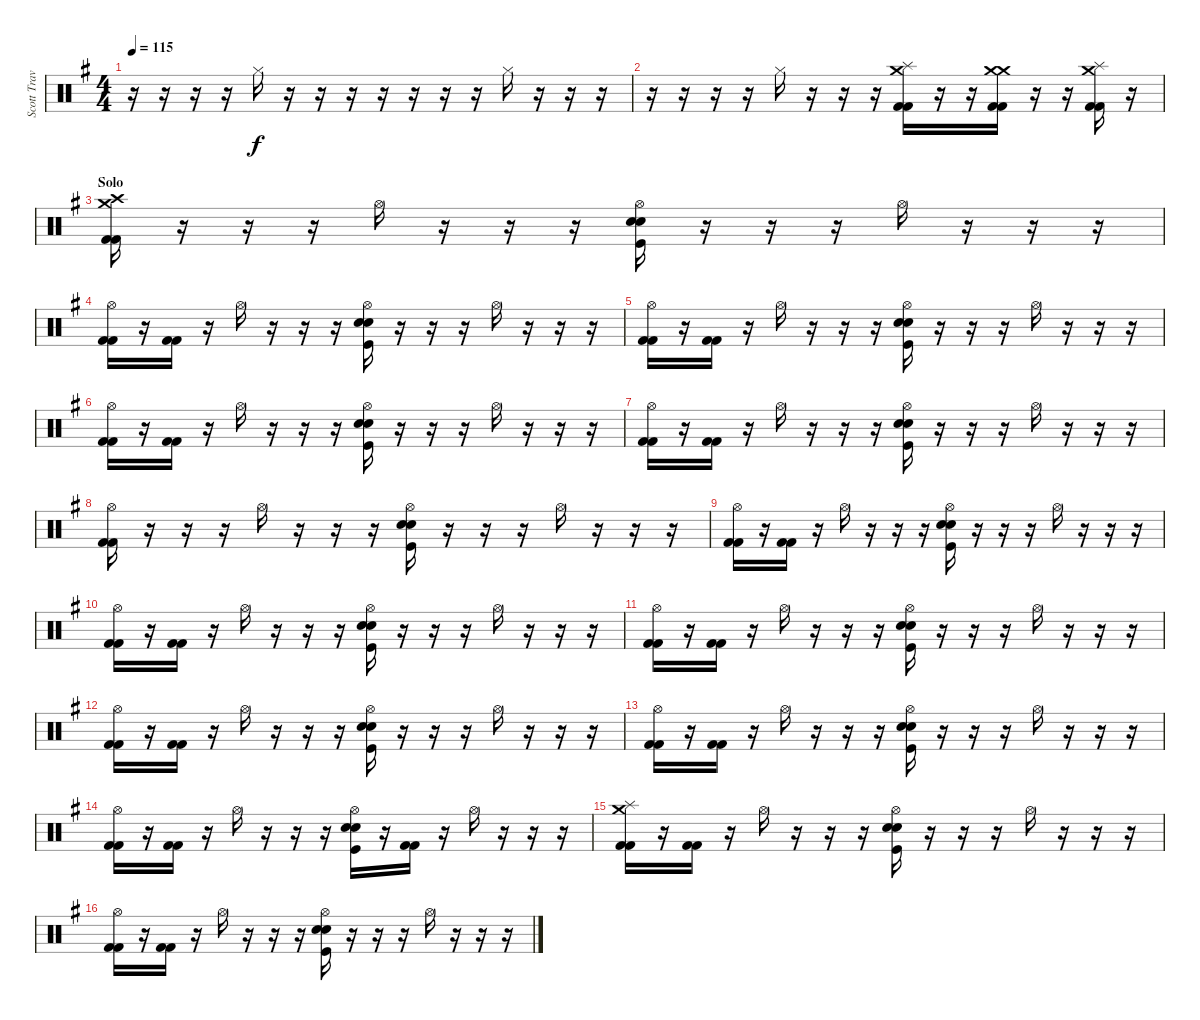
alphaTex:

\track ("Scott Travis" "Scott Trav") {instrument percussion}
\staff {score}
\articulation defaults
\ts (4 4)
\tempo 115
\clef neutral
\ks eminor
r.16{dy f} r.16 r.16 r.16 "Hi-Hat (closed)".16 r.16 r.16 r.16 r.16 r.16 r.16 r.16 "Hi-Hat (closed)".16 r.16 r.16 r.16 |
r.16 r.16 r.16 r.16 "Hi-Hat (closed)".16 r.16 r.16 r.16 ("Splash (hit)" "Crash medium (hit)" "Kick (hit) 2" "Kick (hit) 2").16 r.16 r.16 ("Crash medium (hit)" "Crash medium (hit)" "Kick (hit) 2" "Kick (hit) 2").16 r.16 r.16 ("Crash medium (hit)" "Splash (hit)" "Kick (hit) 2" "Kick (hit) 2").16 r.16 |
\section ("" "Solo")
("Crash medium (hit)" "Crash high (hit)" "Kick (hit) 2" "Kick (hit) 2").16 r.16 r.16 r.16 "Hi-Hat (open)".16 r.16 r.16 r.16 ("Hi-Hat (open)" "Snare (hit) 2" "Snare (hit) 2" "Kick (hit)").16 r.16 r.16 r.16 "Hi-Hat (open)".16 r.16 r.16 r.16 |
("Hi-Hat (open)" "Kick (hit) 2" "Kick (hit) 2").16 r.16 ("Kick (hit) 2" "Kick (hit) 2").16 r.16 "Hi-Hat (open)".16 r.16 r.16 r.16 ("Hi-Hat (open)" "Snare (hit) 2" "Snare (hit) 2" "Kick (hit)").16 r.16 r.16 r.16 "Hi-Hat (open)".16 r.16 r.16 r.16 |
("Hi-Hat (open)" "Kick (hit) 2" "Kick (hit) 2").16 r.16 ("Kick (hit) 2" "Kick (hit) 2").16 r.16 "Hi-Hat (open)".16 r.16 r.16 r.16 ("Hi-Hat (open)" "Snare (hit) 2" "Snare (hit) 2" "Kick (hit)").16 r.16 r.16 r.16 "Hi-Hat (open)".16 r.16 r.16 r.16 |
("Hi-Hat (open)" "Kick (hit) 2" "Kick (hit) 2").16 r.16 ("Kick (hit) 2" "Kick (hit) 2").16 r.16 "Hi-Hat (open)".16 r.16 r.16 r.16 ("Hi-Hat (open)" "Snare (hit) 2" "Snare (hit) 2" "Kick (hit)").16 r.16 r.16 r.16 "Hi-Hat (open)".16 r.16 r.16 r.16 |
("Hi-Hat (open)" "Kick (hit) 2" "Kick (hit) 2").16 r.16 ("Kick (hit) 2" "Kick (hit) 2").16 r.16 "Hi-Hat (open)".16 r.16 r.16 r.16 ("Hi-Hat (open)" "Snare (hit) 2" "Snare (hit) 2" "Kick (hit)").16 r.16 r.16 r.16 "Hi-Hat (open)".16 r.16 r.16 r.16 |
("Hi-Hat (open)" "Kick (hit) 2" "Kick (hit) 2").16 r.16 r.16 r.16 "Hi-Hat (open)".16 r.16 r.16 r.16 ("Hi-Hat (open)" "Snare (hit) 2" "Snare (hit) 2" "Kick (hit)").16 r.16 r.16 r.16 "Hi-Hat (open)".16 r.16 r.16 r.16 |
("Hi-Hat (open)" "Kick (hit) 2" "Kick (hit) 2").16 r.16 ("Kick (hit) 2" "Kick (hit) 2").16 r.16 "Hi-Hat (open)".16 r.16 r.16 r.16 ("Hi-Hat (open)" "Snare (hit) 2" "Snare (hit) 2" "Kick (hit)").16 r.16 r.16 r.16 "Hi-Hat (open)".16 r.16 r.16 r.16 |
("Hi-Hat (open)" "Kick (hit) 2" "Kick (hit) 2").16 r.16 ("Kick (hit) 2" "Kick (hit) 2").16 r.16 "Hi-Hat (open)".16 r.16 r.16 r.16 ("Hi-Hat (open)" "Snare (hit) 2" "Snare (hit) 2" "Kick (hit)").16 r.16 r.16 r.16 "Hi-Hat (open)".16 r.16 r.16 r.16 |
("Hi-Hat (open)" "Kick (hit) 2" "Kick (hit) 2").16 r.16 ("Kick (hit) 2" "Kick (hit) 2").16 r.16 "Hi-Hat (open)".16 r.16 r.16 r.16 ("Hi-Hat (open)" "Snare (hit) 2" "Snare (hit) 2" "Kick (hit)").16 r.16 r.16 r.16 "Hi-Hat (open)".16 r.16 r.16 r.16 |
("Hi-Hat (open)" "Kick (hit) 2" "Kick (hit) 2").16 r.16 ("Kick (hit) 2" "Kick (hit) 2").16 r.16 "Hi-Hat (open)".16 r.16 r.16 r.16 ("Hi-Hat (open)" "Snare (hit) 2" "Snare (hit) 2" "Kick (hit)").16 r.16 r.16 r.16 "Hi-Hat (open)".16 r.16 r.16 r.16 |
("Hi-Hat (open)" "Kick (hit) 2" "Kick (hit) 2").16 r.16 ("Kick (hit) 2" "Kick (hit) 2").16 r.16 "Hi-Hat (open)".16 r.16 r.16 r.16 ("Hi-Hat (open)" "Snare (hit) 2" "Snare (hit) 2" "Kick (hit)").16 r.16 r.16 r.16 "Hi-Hat (open)".16 r.16 r.16 r.16 |
("Hi-Hat (open)" "Kick (hit) 2" "Kick (hit) 2").16 r.16 ("Kick (hit) 2" "Kick (hit) 2").16 r.16 "Hi-Hat (open)".16 r.16 r.16 r.16 ("Hi-Hat (open)" "Snare (hit) 2" "Snare (hit) 2" "Kick (hit)").16 r.16 ("Kick (hit) 2" "Kick (hit) 2").16 r.16 "Hi-Hat (open)".16 r.16 r.16 r.16 |
("Crash medium (hit)" "Splash (hit)" "Kick (hit) 2" "Kick (hit) 2").16 r.16 ("Kick (hit) 2" "Kick (hit) 2").16 r.16 "Hi-Hat (open)".16 r.16 r.16 r.16 ("Hi-Hat (open)" "Snare (hit) 2" "Snare (hit) 2" "Kick (hit)").16 r.16 r.16 r.16 "Hi-Hat (open)".16 r.16 r.16 r.16 |
("Hi-Hat (open)" "Kick (hit) 2" "Kick (hit) 2").16 r.16 ("Kick (hit) 2" "Kick (hit) 2").16 r.16 "Hi-Hat (open)".16 r.16 r.16 r.16 ("Hi-Hat (open)" "Snare (hit) 2" "Snare (hit) 2" "Kick (hit)").16 r.16 r.16 r.16 "Hi-Hat (open)".16 r.16 r.16 r.16
